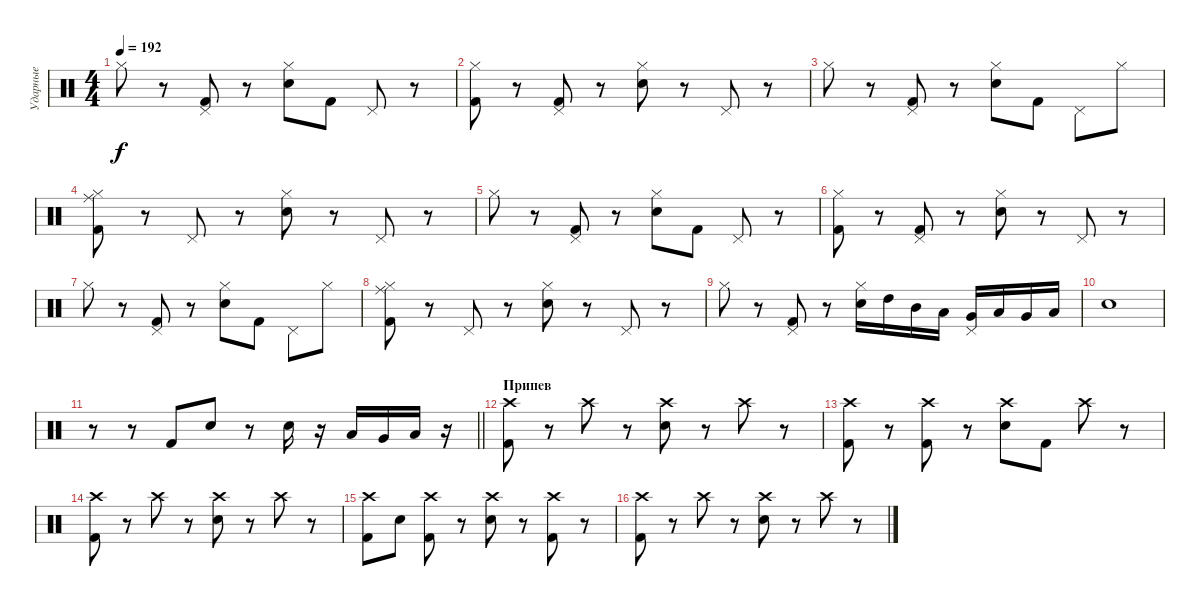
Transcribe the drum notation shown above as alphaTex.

\track ("Ударные" "Ударные") {instrument percussion}
\staff {score}
\articulation defaults
\ts (4 4)
\tempo 192
\clef neutral
\ks c "Hi-Hat (closed)".8{dy f}
r.8 ("Kick (hit) 2" "Pedal Hi-Hat (hit)").8 r.8 ("Snare (hit) 2" "Hi-Hat (closed)").8 "Kick (hit) 2".8 "Pedal Hi-Hat (hit)".8 r.8 |
("Kick (hit) 2" "Hi-Hat (closed)").8 r.8 ("Kick (hit) 2" "Pedal Hi-Hat (hit)").8 r.8 ("Snare (hit) 2" "Hi-Hat (closed)").8 r.8 "Pedal Hi-Hat (hit)".8 r.8 |
"Hi-Hat (closed)".8 r.8 ("Kick (hit) 2" "Pedal Hi-Hat (hit)").8 r.8 ("Snare (hit) 2" "Hi-Hat (closed)").8 "Kick (hit) 2".8 "Pedal Hi-Hat (hit)".8 "Hi-Hat (closed)".8 |
("Kick (hit) 2" "Hi-Hat (closed)" "Ride (middle)").8 r.8 "Pedal Hi-Hat (hit)".8 r.8 ("Snare (hit) 2" "Hi-Hat (closed)").8 r.8 "Pedal Hi-Hat (hit)".8 r.8 |
"Hi-Hat (closed)".8 r.8 ("Kick (hit) 2" "Pedal Hi-Hat (hit)").8 r.8 ("Snare (hit) 2" "Hi-Hat (closed)").8 "Kick (hit) 2".8 "Pedal Hi-Hat (hit)".8 r.8 |
("Kick (hit) 2" "Hi-Hat (closed)").8 r.8 ("Kick (hit) 2" "Pedal Hi-Hat (hit)").8 r.8 ("Snare (hit) 2" "Hi-Hat (closed)").8 r.8 "Pedal Hi-Hat (hit)".8 r.8 |
"Hi-Hat (closed)".8 r.8 ("Kick (hit) 2" "Pedal Hi-Hat (hit)").8 r.8 ("Snare (hit) 2" "Hi-Hat (closed)").8 "Kick (hit) 2".8 "Pedal Hi-Hat (hit)".8 "Hi-Hat (closed)".8 |
("Kick (hit) 2" "Hi-Hat (closed)" "Ride (middle)").8 r.8 "Pedal Hi-Hat (hit)".8 r.8 ("Snare (hit) 2" "Hi-Hat (closed)").8 r.8 "Pedal Hi-Hat (hit)".8 r.8 |
"Hi-Hat (closed)".8 r.8 ("Kick (hit) 2" "Pedal Hi-Hat (hit)").8 r.8 ("Snare (hit) 2" "Hi-Hat (closed)").16 "High Tom (hit)".16 "Mid Tom (hit)".16 "Low Tom (hit)".16 ("Pedal Hi-Hat (hit)" "Very Low Tom (hit)").16 "Low Floor Tom (hit)".16 "Very Low Tom (hit)".16 "Low Floor Tom (hit)".16 |
"Snare (hit) 2".1 |
\barLineRight lightlight
r.8 r.8 "Kick (hit) 2".8 "Snare (hit) 2".8 r.8 "Snare (hit) 2".16 r.16 "Low Tom (hit)".16 "Very Low Tom (hit)".16 "Low Floor Tom (hit)".16 r.16 |
\section ("" "Припев")
("Kick (hit) 2" "Crash high (hit)").8 r.8 "Crash high (hit)".8 r.8 ("Snare (hit) 2" "Crash high (hit)").8 r.8 "Crash high (hit)".8 r.8 |
("Kick (hit) 2" "Crash high (hit)").8 r.8 ("Kick (hit) 2" "Crash high (hit)").8 r.8 ("Snare (hit) 2" "Crash high (hit)").8 "Kick (hit) 2".8 "Crash high (hit)".8 r.8 |
("Kick (hit) 2" "Crash high (hit)").8 r.8 "Crash high (hit)".8 r.8 ("Snare (hit) 2" "Crash high (hit)").8 r.8 "Crash high (hit)".8 r.8 |
("Kick (hit) 2" "Crash high (hit)").8 "Snare (hit) 2".8 ("Kick (hit) 2" "Crash high (hit)").8 r.8 ("Snare (hit) 2" "Crash high (hit)").8 r.8 ("Crash high (hit)" "Kick (hit) 2").8 r.8 |
("Kick (hit) 2" "Crash high (hit)").8 r.8 "Crash high (hit)".8 r.8 ("Snare (hit) 2" "Crash high (hit)").8 r.8 "Crash high (hit)".8 r.8
